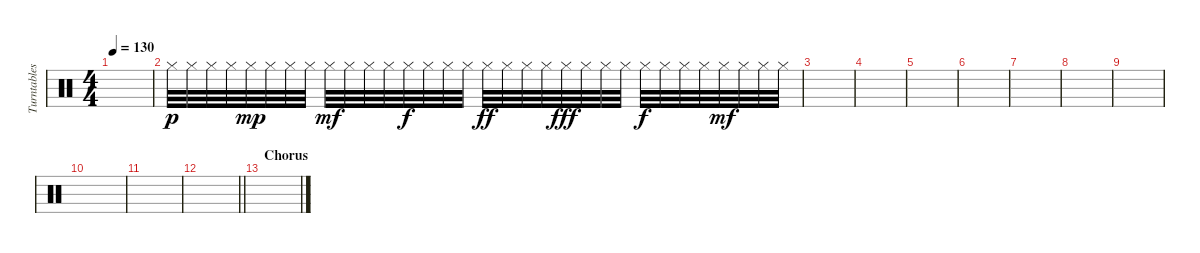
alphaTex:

\track ("Turntables - Joe Hahn" "Turntables") {instrument percussion}
\staff {score}
\articulation defaults
\ts (4 4)
\tempo 130
\clef neutral
\ks c
|
"Hi-Hat (closed)".32{dy p} "Hi-Hat (closed)".32 "Hi-Hat (closed)".32 "Hi-Hat (closed)".32 "Hi-Hat (closed)".32{dy mp} "Hi-Hat (closed)".32 "Hi-Hat (closed)".32 "Hi-Hat (closed)".32 "Hi-Hat (closed)".32{dy mf} "Hi-Hat (closed)".32 "Hi-Hat (closed)".32 "Hi-Hat (closed)".32 "Hi-Hat (closed)".32{dy f} "Hi-Hat (closed)".32 "Hi-Hat (closed)".32 "Hi-Hat (closed)".32 "Hi-Hat (closed)".32{dy ff} "Hi-Hat (closed)".32 "Hi-Hat (closed)".32 "Hi-Hat (closed)".32 "Hi-Hat (closed)".32{dy fff} "Hi-Hat (closed)".32 "Hi-Hat (closed)".32 "Hi-Hat (closed)".32 "Hi-Hat (closed)".32{dy f} "Hi-Hat (closed)".32 "Hi-Hat (closed)".32 "Hi-Hat (closed)".32 "Hi-Hat (closed)".32{dy mf} "Hi-Hat (closed)".32 "Hi-Hat (closed)".32 "Hi-Hat (closed)".32 |
|
|
|
|
|
|
|
|
|
\barLineRight lightlight
|
\section ("" "Chorus")
